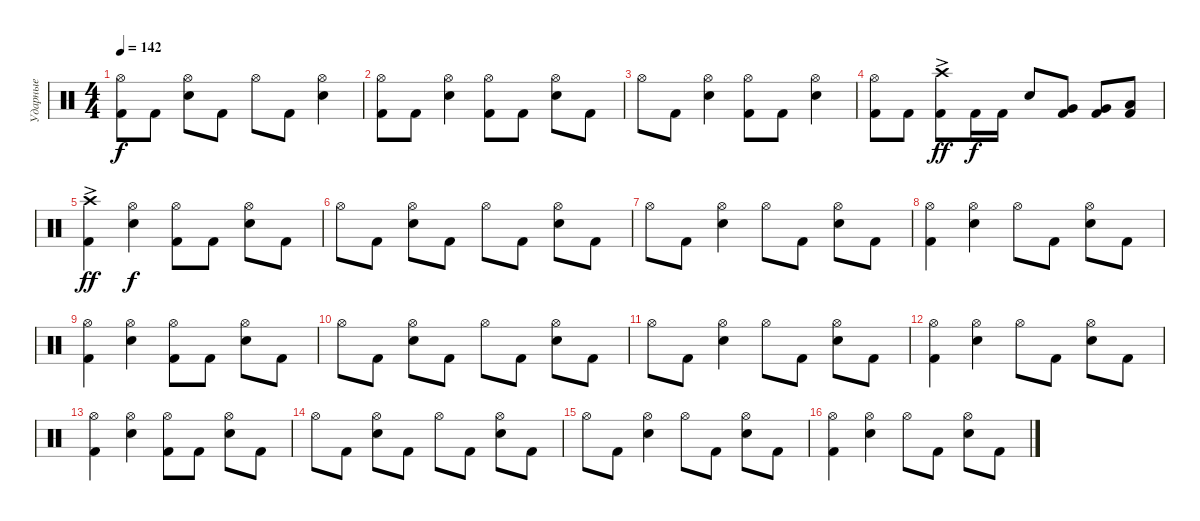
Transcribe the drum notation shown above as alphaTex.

\track ("Ударные" "Ударные") {instrument percussion}
\staff {score}
\articulation defaults
\ts (4 4)
\tempo 142
\clef neutral
\ks c
("Kick (hit) 2" "Hi-Hat (open)").8{dy f} "Kick (hit) 2".8 ("Snare (hit) 2" "Hi-Hat (open)").8 "Kick (hit) 2".8 "Hi-Hat (open)".8 "Kick (hit) 2".8 ("Snare (hit) 2" "Hi-Hat (open)").4 |
("Kick (hit) 2" "Hi-Hat (open)").8 "Kick (hit) 2".8 ("Snare (hit) 2" "Hi-Hat (open)").4 ("Kick (hit) 2" "Hi-Hat (open)").8 "Kick (hit) 2".8 ("Snare (hit) 2" "Hi-Hat (open)").8 "Kick (hit) 2".8 |
"Hi-Hat (open)".8 "Kick (hit) 2".8 ("Snare (hit) 2" "Hi-Hat (open)").4 ("Kick (hit) 2" "Hi-Hat (open)").8 "Kick (hit) 2".8 ("Snare (hit) 2" "Hi-Hat (open)").4 |
("Kick (hit) 2" "Hi-Hat (open)").8 "Kick (hit) 2".8 ("Kick (hit) 2" "Crash high (hit)"{ac}).8{dy ff} "Kick (hit) 2".16{dy f} "Kick (hit) 2".16 "Snare (hit) 2".8 ("Kick (hit) 2" "Very Low Tom (hit)").8 ("Kick (hit) 2" "Very Low Tom (hit)").8 ("Kick (hit) 2" "Low Floor Tom (hit)").8 |
("Kick (hit) 2" "Crash high (hit)"{ac}).4{dy ff} ("Snare (hit) 2" "Hi-Hat (open)").4{dy f} ("Kick (hit) 2" "Hi-Hat (open)").8 "Kick (hit) 2".8 ("Snare (hit) 2" "Hi-Hat (open)").8 "Kick (hit) 2".8 |
"Hi-Hat (open)".8 "Kick (hit) 2".8 ("Snare (hit) 2" "Hi-Hat (open)").8 "Kick (hit) 2".8 "Hi-Hat (open)".8 "Kick (hit) 2".8 ("Snare (hit) 2" "Hi-Hat (open)").8 "Kick (hit) 2".8 |
"Hi-Hat (open)".8 "Kick (hit) 2".8 ("Snare (hit) 2" "Hi-Hat (open)").4 "Hi-Hat (open)".8 "Kick (hit) 2".8 ("Snare (hit) 2" "Hi-Hat (open)").8 "Kick (hit) 2".8 |
("Kick (hit) 2" "Hi-Hat (open)").4 ("Snare (hit) 2" "Hi-Hat (open)").4 "Hi-Hat (open)".8 "Kick (hit) 2".8 ("Snare (hit) 2" "Hi-Hat (open)").8 "Kick (hit) 2".8 |
("Kick (hit) 2" "Hi-Hat (open)").4 ("Snare (hit) 2" "Hi-Hat (open)").4 ("Kick (hit) 2" "Hi-Hat (open)").8 "Kick (hit) 2".8 ("Snare (hit) 2" "Hi-Hat (open)").8 "Kick (hit) 2".8 |
"Hi-Hat (open)".8 "Kick (hit) 2".8 ("Snare (hit) 2" "Hi-Hat (open)").8 "Kick (hit) 2".8 "Hi-Hat (open)".8 "Kick (hit) 2".8 ("Snare (hit) 2" "Hi-Hat (open)").8 "Kick (hit) 2".8 |
"Hi-Hat (open)".8 "Kick (hit) 2".8 ("Snare (hit) 2" "Hi-Hat (open)").4 "Hi-Hat (open)".8 "Kick (hit) 2".8 ("Snare (hit) 2" "Hi-Hat (open)").8 "Kick (hit) 2".8 |
("Kick (hit) 2" "Hi-Hat (open)").4 ("Snare (hit) 2" "Hi-Hat (open)").4 "Hi-Hat (open)".8 "Kick (hit) 2".8 ("Snare (hit) 2" "Hi-Hat (open)").8 "Kick (hit) 2".8 |
("Kick (hit) 2" "Hi-Hat (open)").4 ("Snare (hit) 2" "Hi-Hat (open)").4 ("Kick (hit) 2" "Hi-Hat (open)").8 "Kick (hit) 2".8 ("Snare (hit) 2" "Hi-Hat (open)").8 "Kick (hit) 2".8 |
"Hi-Hat (open)".8 "Kick (hit) 2".8 ("Snare (hit) 2" "Hi-Hat (open)").8 "Kick (hit) 2".8 "Hi-Hat (open)".8 "Kick (hit) 2".8 ("Snare (hit) 2" "Hi-Hat (open)").8 "Kick (hit) 2".8 |
"Hi-Hat (open)".8 "Kick (hit) 2".8 ("Snare (hit) 2" "Hi-Hat (open)").4 "Hi-Hat (open)".8 "Kick (hit) 2".8 ("Snare (hit) 2" "Hi-Hat (open)").8 "Kick (hit) 2".8 |
("Kick (hit) 2" "Hi-Hat (open)").4 ("Snare (hit) 2" "Hi-Hat (open)").4 "Hi-Hat (open)".8 "Kick (hit) 2".8 ("Snare (hit) 2" "Hi-Hat (open)").8 "Kick (hit) 2".8
